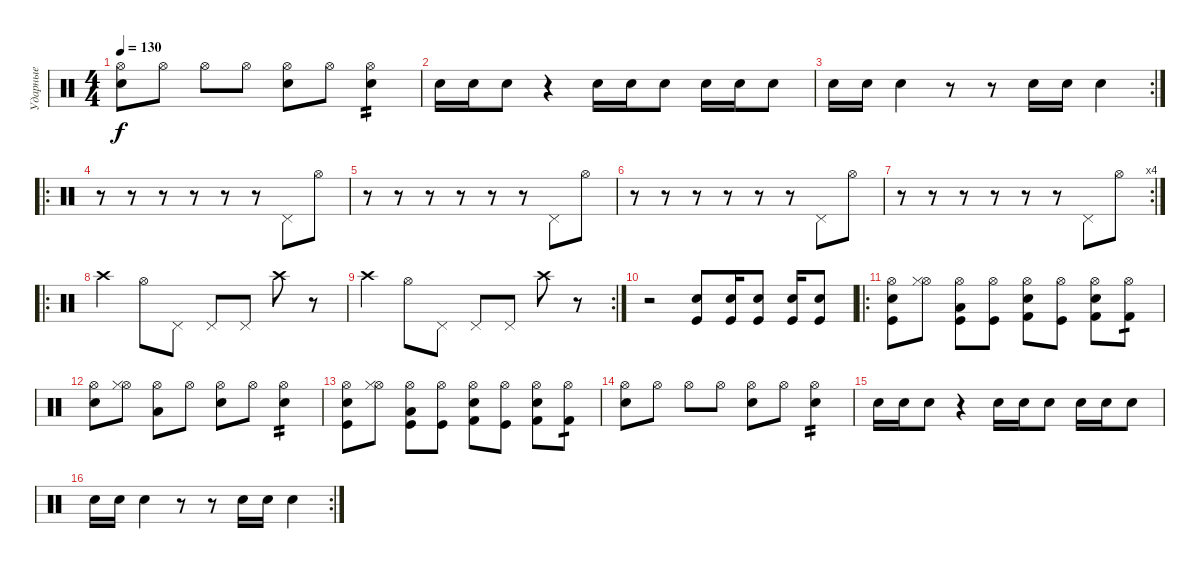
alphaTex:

\track ("Ударные" "Ударные") {instrument percussion}
\staff {score}
\articulation defaults
\ts (4 4)
\tempo 130
\clef neutral
\ks c
("Hi-Hat (open)" "Electric Snare (hit)").8{dy f} "Hi-Hat (open)".8 "Hi-Hat (open)".8 "Hi-Hat (open)".8 ("Hi-Hat (open)" "Electric Snare (hit)").8 "Hi-Hat (open)".8 ("Hi-Hat (open)" "Electric Snare (hit)").4{tp 2} |
"Electric Snare (hit)".16 "Electric Snare (hit)".16 "Electric Snare (hit)".8 r.4 "Electric Snare (hit)".16 "Electric Snare (hit)".16 "Electric Snare (hit)".8 "Electric Snare (hit)".16 "Electric Snare (hit)".16 "Electric Snare (hit)".8 |
\rc 2 "Electric Snare (hit)".16 "Electric Snare (hit)".16 "Electric Snare (hit)".4
r.8 r.8 "Electric Snare (hit)".16 "Electric Snare (hit)".16 "Electric Snare (hit)".4 |
\ro
r.8 r.8 r.8 r.8 r.8 r.8 "Pedal Hi-Hat (hit)".8 "Hi-Hat (open)".8 |
r.8 r.8 r.8 r.8 r.8 r.8 "Pedal Hi-Hat (hit)".8 "Hi-Hat (open)".8 |
r.8 r.8 r.8 r.8 r.8 r.8 "Pedal Hi-Hat (hit)".8 "Hi-Hat (open)".8 |
\rc 4
r.8 r.8 r.8 r.8 r.8 r.8 "Pedal Hi-Hat (hit)".8 "Hi-Hat (open)".8 |
\ro "Crash high (hit)".4 "Hi-Hat (open)".8 "Pedal Hi-Hat (hit)".8 "Pedal Hi-Hat (hit)".8 "Pedal Hi-Hat (hit)".8 "Crash high (hit)".8
r.8 |
\rc 2 "Crash high (hit)".4 "Hi-Hat (open)".8 "Pedal Hi-Hat (hit)".8 "Pedal Hi-Hat (hit)".8 "Pedal Hi-Hat (hit)".8 "Crash high (hit)".8
r.8 |
r.2 ("Kick (hit)" "Electric Snare (hit)").8 ("Kick (hit)" "Electric Snare (hit)").16 ("Kick (hit)" "Electric Snare (hit)").8 ("Kick (hit)" "Electric Snare (hit)").16 ("Kick (hit)" "Electric Snare (hit)").8 |
\ro
("Kick (hit)" "Hi-Hat (open)" "Electric Snare (hit)").8 ("Hi-Hat (open)" "Hi-Hat (closed)").8 ("Kick (hit)" "Hi-Hat (open)" "Low Floor Tom (hit)").8 ("Kick (hit)" "Hi-Hat (open)").8 ("Kick (hit) 2" "Hi-Hat (open)" "Electric Snare (hit)").8 ("Kick (hit)" "Hi-Hat (open)").8 ("Kick (hit) 2" "Hi-Hat (open)" "Electric Snare (hit)").8 ("Kick (hit) 2" "Hi-Hat (open)").8{tp 1} |
("Hi-Hat (open)" "Electric Snare (hit)").8 ("Hi-Hat (open)" "Hi-Hat (closed)").8 ("Hi-Hat (open)" "Low Floor Tom (hit)").8 "Hi-Hat (open)".8 ("Hi-Hat (open)" "Electric Snare (hit)").8 "Hi-Hat (open)".8 ("Hi-Hat (open)" "Electric Snare (hit)").4{tp 2} |
("Kick (hit)" "Hi-Hat (open)" "Electric Snare (hit)").8 ("Hi-Hat (open)" "Hi-Hat (closed)").8 ("Kick (hit)" "Hi-Hat (open)" "Low Floor Tom (hit)").8 ("Kick (hit)" "Hi-Hat (open)").8 ("Kick (hit) 2" "Hi-Hat (open)" "Electric Snare (hit)").8 ("Kick (hit)" "Hi-Hat (open)").8 ("Kick (hit) 2" "Hi-Hat (open)" "Electric Snare (hit)").8 ("Kick (hit) 2" "Hi-Hat (open)").8{tp 1} |
("Hi-Hat (open)" "Electric Snare (hit)").8 "Hi-Hat (open)".8 "Hi-Hat (open)".8 "Hi-Hat (open)".8 ("Hi-Hat (open)" "Electric Snare (hit)").8 "Hi-Hat (open)".8 ("Hi-Hat (open)" "Electric Snare (hit)").4{tp 2} |
"Electric Snare (hit)".16 "Electric Snare (hit)".16 "Electric Snare (hit)".8 r.4 "Electric Snare (hit)".16 "Electric Snare (hit)".16 "Electric Snare (hit)".8 "Electric Snare (hit)".16 "Electric Snare (hit)".16 "Electric Snare (hit)".8 |
\rc 2 "Electric Snare (hit)".16 "Electric Snare (hit)".16 "Electric Snare (hit)".4
r.8 r.8 "Electric Snare (hit)".16 "Electric Snare (hit)".16 "Electric Snare (hit)".4
